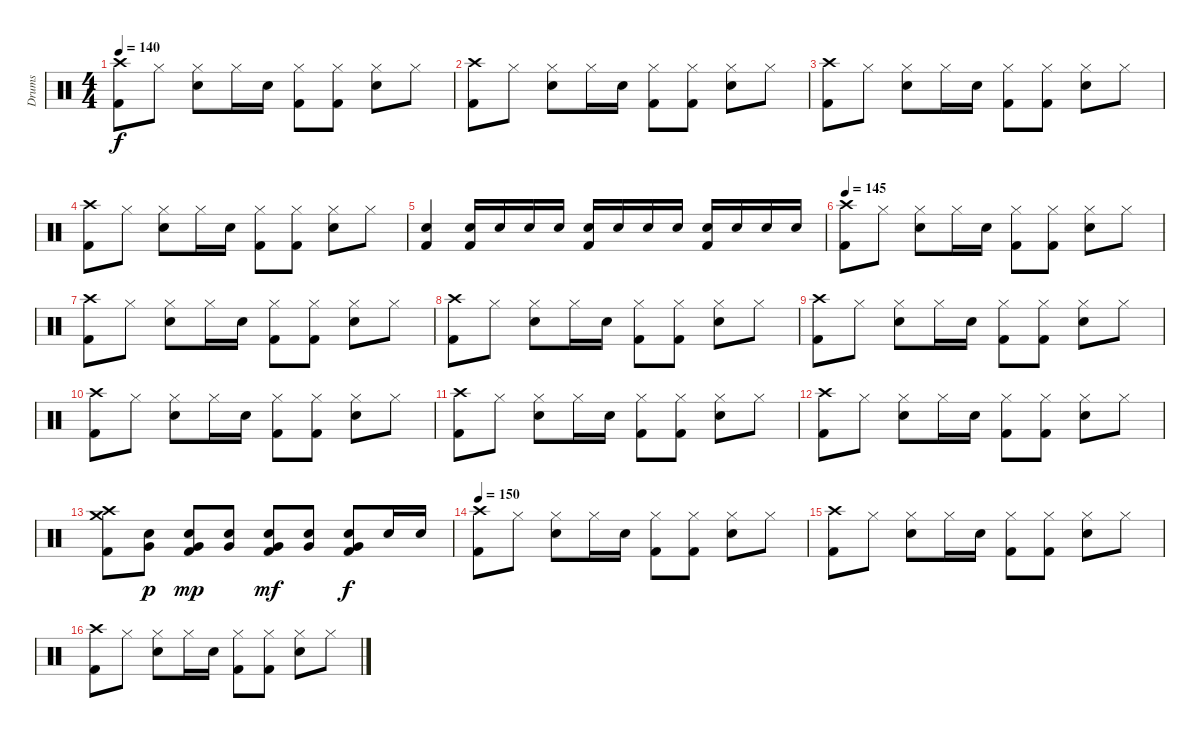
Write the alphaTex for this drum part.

\track ("Drums" "Drums") {instrument percussion}
\staff {score}
\articulation defaults
\ts (4 4)
\tempo 140
\clef neutral
\ks c
("Crash high (hit)" "Kick (hit) 2").8{dy f} "Hi-Hat (closed)".8 ("Hi-Hat (closed)" "Snare (hit) 2").8 "Hi-Hat (closed)".16 "Snare (hit) 2".16 ("Hi-Hat (closed)" "Kick (hit) 2").8 ("Hi-Hat (closed)" "Kick (hit) 2").8 ("Hi-Hat (closed)" "Snare (hit) 2").8 "Hi-Hat (closed)".8 |
("Crash high (hit)" "Kick (hit) 2").8 "Hi-Hat (closed)".8 ("Hi-Hat (closed)" "Snare (hit) 2").8 "Hi-Hat (closed)".16 "Snare (hit) 2".16 ("Hi-Hat (closed)" "Kick (hit) 2").8 ("Hi-Hat (closed)" "Kick (hit) 2").8 ("Hi-Hat (closed)" "Snare (hit) 2").8 "Hi-Hat (closed)".8 |
("Crash high (hit)" "Kick (hit) 2").8 "Hi-Hat (closed)".8 ("Hi-Hat (closed)" "Snare (hit) 2").8 "Hi-Hat (closed)".16 "Snare (hit) 2".16 ("Hi-Hat (closed)" "Kick (hit) 2").8 ("Hi-Hat (closed)" "Kick (hit) 2").8 ("Hi-Hat (closed)" "Snare (hit) 2").8 "Hi-Hat (closed)".8 |
("Crash high (hit)" "Kick (hit) 2").8 "Hi-Hat (closed)".8 ("Hi-Hat (closed)" "Snare (hit) 2").8 "Hi-Hat (closed)".16 "Snare (hit) 2".16 ("Hi-Hat (closed)" "Kick (hit) 2").8 ("Hi-Hat (closed)" "Kick (hit) 2").8 ("Hi-Hat (closed)" "Snare (hit) 2").8 "Hi-Hat (closed)".8 |
("Snare (hit) 2" "Kick (hit) 2").4 ("Snare (hit) 2" "Kick (hit) 2").16 "Snare (hit) 2".16 "Snare (hit) 2".16 "Snare (hit) 2".16 ("Snare (hit) 2" "Kick (hit) 2").16 "Snare (hit) 2".16 "Snare (hit) 2".16 "Snare (hit) 2".16 ("Snare (hit) 2" "Kick (hit) 2").16 "Snare (hit) 2".16 "Snare (hit) 2".16 "Snare (hit) 2".16 |
\tempo 145
("Crash high (hit)" "Kick (hit) 2").8 "Hi-Hat (closed)".8 ("Hi-Hat (closed)" "Snare (hit) 2").8 "Hi-Hat (closed)".16 "Snare (hit) 2".16 ("Hi-Hat (closed)" "Kick (hit) 2").8 ("Hi-Hat (closed)" "Kick (hit) 2").8 ("Hi-Hat (closed)" "Snare (hit) 2").8 "Hi-Hat (closed)".8 |
("Crash high (hit)" "Kick (hit) 2").8 "Hi-Hat (closed)".8 ("Hi-Hat (closed)" "Snare (hit) 2").8 "Hi-Hat (closed)".16 "Snare (hit) 2".16 ("Hi-Hat (closed)" "Kick (hit) 2").8 ("Hi-Hat (closed)" "Kick (hit) 2").8 ("Hi-Hat (closed)" "Snare (hit) 2").8 "Hi-Hat (closed)".8 |
("Crash high (hit)" "Kick (hit) 2").8 "Hi-Hat (closed)".8 ("Hi-Hat (closed)" "Snare (hit) 2").8 "Hi-Hat (closed)".16 "Snare (hit) 2".16 ("Hi-Hat (closed)" "Kick (hit) 2").8 ("Hi-Hat (closed)" "Kick (hit) 2").8 ("Hi-Hat (closed)" "Snare (hit) 2").8 "Hi-Hat (closed)".8 |
("Crash high (hit)" "Kick (hit) 2").8 "Hi-Hat (closed)".8 ("Hi-Hat (closed)" "Snare (hit) 2").8 "Hi-Hat (closed)".16 "Snare (hit) 2".16 ("Hi-Hat (closed)" "Kick (hit) 2").8 ("Hi-Hat (closed)" "Kick (hit) 2").8 ("Hi-Hat (closed)" "Snare (hit) 2").8 "Hi-Hat (closed)".8 |
("Crash high (hit)" "Kick (hit) 2").8 "Hi-Hat (closed)".8 ("Hi-Hat (closed)" "Snare (hit) 2").8 "Hi-Hat (closed)".16 "Snare (hit) 2".16 ("Hi-Hat (closed)" "Kick (hit) 2").8 ("Hi-Hat (closed)" "Kick (hit) 2").8 ("Hi-Hat (closed)" "Snare (hit) 2").8 "Hi-Hat (closed)".8 |
("Crash high (hit)" "Kick (hit) 2").8 "Hi-Hat (closed)".8 ("Hi-Hat (closed)" "Snare (hit) 2").8 "Hi-Hat (closed)".16 "Snare (hit) 2".16 ("Hi-Hat (closed)" "Kick (hit) 2").8 ("Hi-Hat (closed)" "Kick (hit) 2").8 ("Hi-Hat (closed)" "Snare (hit) 2").8 "Hi-Hat (closed)".8 |
("Crash high (hit)" "Kick (hit) 2").8 "Hi-Hat (closed)".8 ("Hi-Hat (closed)" "Snare (hit) 2").8 "Hi-Hat (closed)".16 "Snare (hit) 2".16 ("Hi-Hat (closed)" "Kick (hit) 2").8 ("Hi-Hat (closed)" "Kick (hit) 2").8 ("Hi-Hat (closed)" "Snare (hit) 2").8 "Hi-Hat (closed)".8 |
("Crash high (hit)" "Crash medium (hit)" "Kick (hit) 2").8 ("Very Low Tom (hit)" "Snare (hit) 2").8{dy p} ("Very Low Tom (hit)" "Snare (hit) 2" "Kick (hit) 2").8{dy mp} ("Very Low Tom (hit)" "Snare (hit) 2").8 ("Very Low Tom (hit)" "Snare (hit) 2" "Kick (hit) 2").8{dy mf} ("Very Low Tom (hit)" "Snare (hit) 2").8 ("Very Low Tom (hit)" "Snare (hit) 2" "Kick (hit) 2").8{dy f} "Snare (hit) 2".16 "Snare (hit) 2".16 |
\tempo 150
("Crash high (hit)" "Kick (hit) 2").8 "Hi-Hat (closed)".8 ("Hi-Hat (closed)" "Snare (hit) 2").8 "Hi-Hat (closed)".16 "Snare (hit) 2".16 ("Hi-Hat (closed)" "Kick (hit) 2").8 ("Hi-Hat (closed)" "Kick (hit) 2").8 ("Hi-Hat (closed)" "Snare (hit) 2").8 "Hi-Hat (closed)".8 |
("Crash high (hit)" "Kick (hit) 2").8 "Hi-Hat (closed)".8 ("Hi-Hat (closed)" "Snare (hit) 2").8 "Hi-Hat (closed)".16 "Snare (hit) 2".16 ("Hi-Hat (closed)" "Kick (hit) 2").8 ("Hi-Hat (closed)" "Kick (hit) 2").8 ("Hi-Hat (closed)" "Snare (hit) 2").8 "Hi-Hat (closed)".8 |
("Crash high (hit)" "Kick (hit) 2").8 "Hi-Hat (closed)".8 ("Hi-Hat (closed)" "Snare (hit) 2").8 "Hi-Hat (closed)".16 "Snare (hit) 2".16 ("Hi-Hat (closed)" "Kick (hit) 2").8 ("Hi-Hat (closed)" "Kick (hit) 2").8 ("Hi-Hat (closed)" "Snare (hit) 2").8 "Hi-Hat (closed)".8
